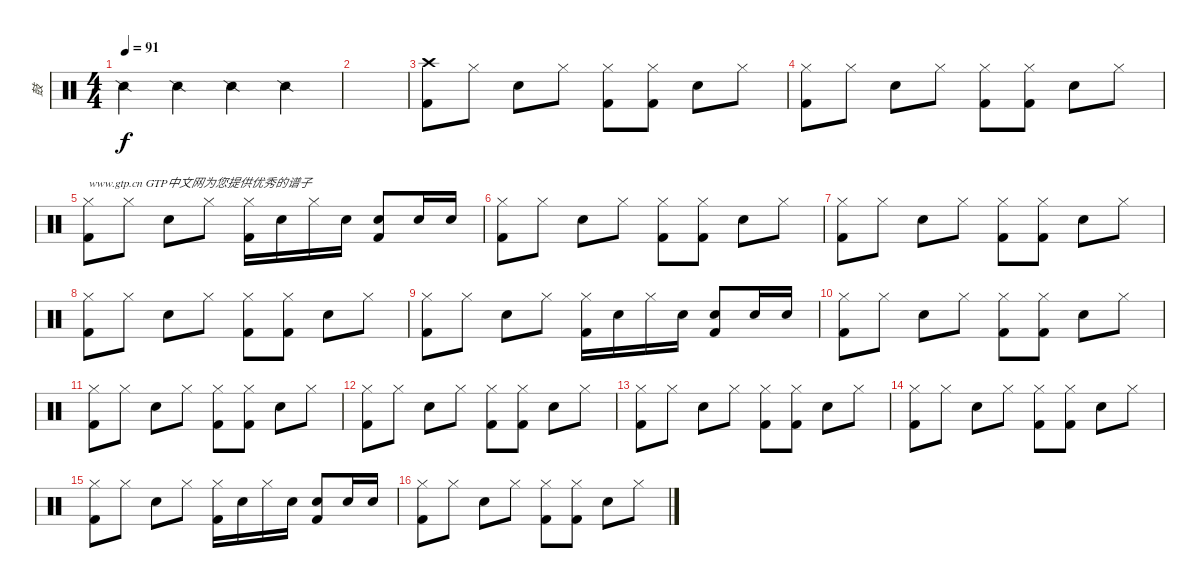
\track ("鼓" "鼓") {instrument percussion}
\staff {score}
\articulation defaults
\ts (4 4)
\tempo 91
\clef neutral
\ks c "Snare (side stick) 2".4{dy f} "Snare (side stick) 2".4 "Snare (side stick) 2".4 "Snare (side stick) 2".4
|
|
("Crash high (hit)" "Kick (hit) 2").8 "Hi-Hat (closed)".8 "Snare (hit) 2".8 "Hi-Hat (closed)".8 ("Hi-Hat (closed)" "Kick (hit) 2").8 ("Hi-Hat (closed)" "Kick (hit) 2").8 "Snare (hit) 2".8 "Hi-Hat (closed)".8 |
("Hi-Hat (closed)" "Kick (hit) 2").8 "Hi-Hat (closed)".8 "Snare (hit) 2".8 "Hi-Hat (closed)".8 ("Hi-Hat (closed)" "Kick (hit) 2").8 ("Hi-Hat (closed)" "Kick (hit) 2").8 "Snare (hit) 2".8 "Hi-Hat (closed)".8 |
("Hi-Hat (closed)" "Kick (hit) 2").8{txt "www.gtp.cn GTP中文网为您提供优秀的谱子"} "Hi-Hat (closed)".8 "Snare (hit) 2".8 "Hi-Hat (closed)".8 ("Hi-Hat (closed)" "Kick (hit) 2").16 "Snare (hit) 2".16 "Hi-Hat (closed)".16 "Snare (hit) 2".16 ("Snare (hit) 2" "Kick (hit) 2").8 "Snare (hit) 2".16 "Snare (hit) 2".16 |
("Hi-Hat (closed)" "Kick (hit) 2").8 "Hi-Hat (closed)".8 "Snare (hit) 2".8 "Hi-Hat (closed)".8 ("Hi-Hat (closed)" "Kick (hit) 2").8 ("Hi-Hat (closed)" "Kick (hit) 2").8 "Snare (hit) 2".8 "Hi-Hat (closed)".8 |
("Hi-Hat (closed)" "Kick (hit) 2").8 "Hi-Hat (closed)".8 "Snare (hit) 2".8 "Hi-Hat (closed)".8 ("Hi-Hat (closed)" "Kick (hit) 2").8 ("Hi-Hat (closed)" "Kick (hit) 2").8 "Snare (hit) 2".8 "Hi-Hat (closed)".8 |
("Hi-Hat (closed)" "Kick (hit) 2").8 "Hi-Hat (closed)".8 "Snare (hit) 2".8 "Hi-Hat (closed)".8 ("Hi-Hat (closed)" "Kick (hit) 2").8 ("Hi-Hat (closed)" "Kick (hit) 2").8 "Snare (hit) 2".8 "Hi-Hat (closed)".8 |
("Hi-Hat (closed)" "Kick (hit) 2").8 "Hi-Hat (closed)".8 "Snare (hit) 2".8 "Hi-Hat (closed)".8 ("Hi-Hat (closed)" "Kick (hit) 2").16 "Snare (hit) 2".16 "Hi-Hat (closed)".16 "Snare (hit) 2".16 ("Snare (hit) 2" "Kick (hit) 2").8 "Snare (hit) 2".16 "Snare (hit) 2".16 |
("Hi-Hat (closed)" "Kick (hit) 2").8 "Hi-Hat (closed)".8 "Snare (hit) 2".8 "Hi-Hat (closed)".8 ("Hi-Hat (closed)" "Kick (hit) 2").8 ("Hi-Hat (closed)" "Kick (hit) 2").8 "Snare (hit) 2".8 "Hi-Hat (closed)".8 |
("Hi-Hat (closed)" "Kick (hit) 2").8 "Hi-Hat (closed)".8 "Snare (hit) 2".8 "Hi-Hat (closed)".8 ("Hi-Hat (closed)" "Kick (hit) 2").8 ("Hi-Hat (closed)" "Kick (hit) 2").8 "Snare (hit) 2".8 "Hi-Hat (closed)".8 |
("Hi-Hat (closed)" "Kick (hit) 2").8 "Hi-Hat (closed)".8 "Snare (hit) 2".8 "Hi-Hat (closed)".8 ("Hi-Hat (closed)" "Kick (hit) 2").8 ("Hi-Hat (closed)" "Kick (hit) 2").8 "Snare (hit) 2".8 "Hi-Hat (closed)".8 |
("Hi-Hat (closed)" "Kick (hit) 2").8 "Hi-Hat (closed)".8 "Snare (hit) 2".8 "Hi-Hat (closed)".8 ("Hi-Hat (closed)" "Kick (hit) 2").8 ("Hi-Hat (closed)" "Kick (hit) 2").8 "Snare (hit) 2".8 "Hi-Hat (closed)".8 |
("Hi-Hat (closed)" "Kick (hit) 2").8 "Hi-Hat (closed)".8 "Snare (hit) 2".8 "Hi-Hat (closed)".8 ("Hi-Hat (closed)" "Kick (hit) 2").8 ("Hi-Hat (closed)" "Kick (hit) 2").8 "Snare (hit) 2".8 "Hi-Hat (closed)".8 |
("Hi-Hat (closed)" "Kick (hit) 2").8 "Hi-Hat (closed)".8 "Snare (hit) 2".8 "Hi-Hat (closed)".8 ("Hi-Hat (closed)" "Kick (hit) 2").16 "Snare (hit) 2".16 "Hi-Hat (closed)".16 "Snare (hit) 2".16 ("Snare (hit) 2" "Kick (hit) 2").8 "Snare (hit) 2".16 "Snare (hit) 2".16 |
("Hi-Hat (closed)" "Kick (hit) 2").8 "Hi-Hat (closed)".8 "Snare (hit) 2".8 "Hi-Hat (closed)".8 ("Hi-Hat (closed)" "Kick (hit) 2").8 ("Hi-Hat (closed)" "Kick (hit) 2").8 "Snare (hit) 2".8 "Hi-Hat (closed)".8
